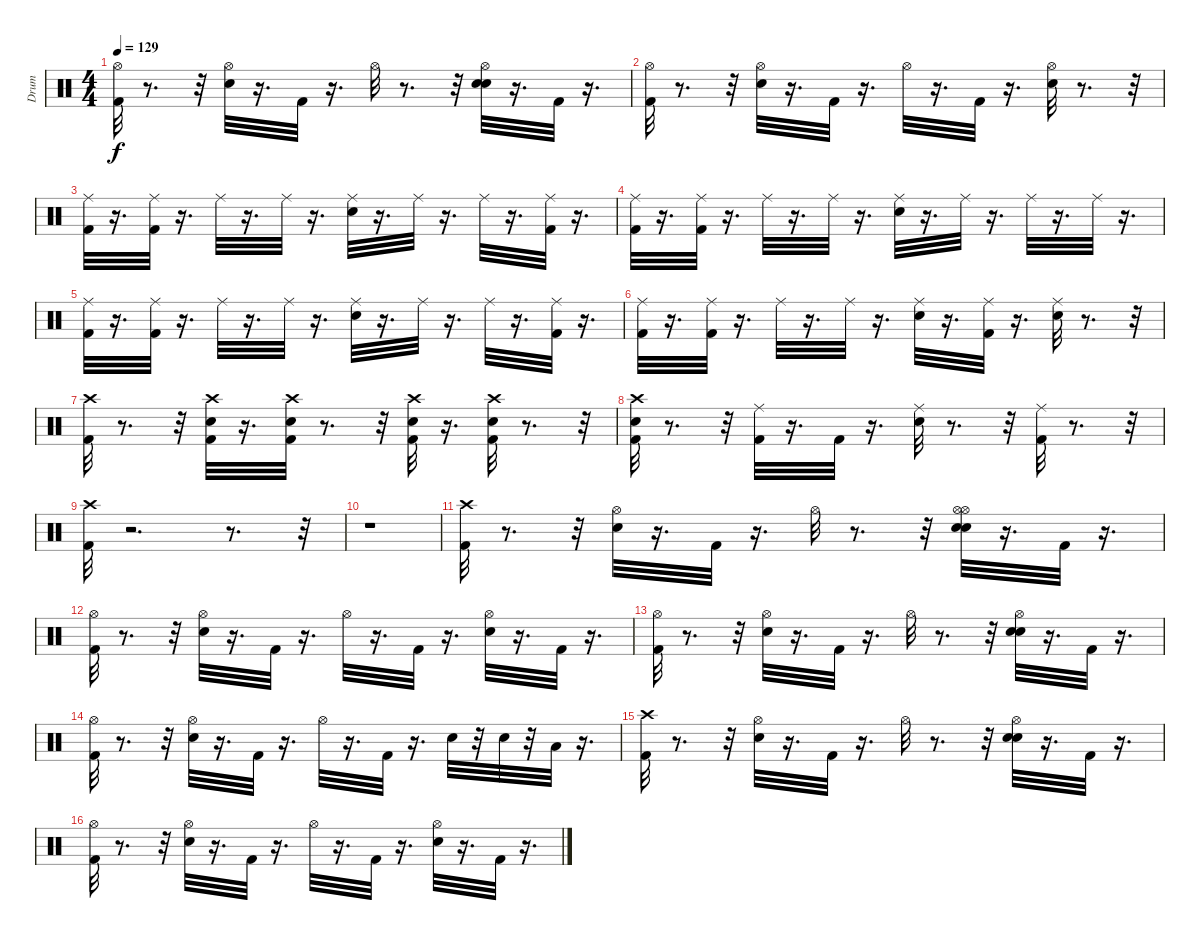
\track ("Drum" "Drum") {instrument percussion}
\staff {score}
\articulation defaults
\ts (4 4)
\tempo 129
\clef neutral
\ks c
("Hi-Hat (open)" "Kick (hit) 2").32{dy f} r.8{d} r.32 ("Snare (hit) 2" "Hi-Hat (open)").32 r.16{d} "Kick (hit) 2".32 r.16{d} "Hi-Hat (open)".32 r.8{d} r.32 ("Snare (hit) 2" "Snare (hit) 2" "Hi-Hat (open)").32 r.16{d} "Kick (hit) 2".32 r.16{d} |
("Hi-Hat (open)" "Kick (hit) 2").32 r.8{d} r.32 ("Snare (hit) 2" "Hi-Hat (open)").32 r.16{d} "Kick (hit) 2".32 r.16{d} "Hi-Hat (open)".32 r.16{d} "Kick (hit) 2".32 r.16{d} ("Snare (hit) 2" "Hi-Hat (open)").32 r.8{d} r.32 |
("Ride (middle)" "Kick (hit) 2").32 r.16{d} ("Kick (hit) 2" "Ride (middle)").32 r.16{d} "Ride (middle)".32 r.16{d} "Ride (middle)".32 r.16{d} ("Ride (middle)" "Snare (hit) 2").32 r.16{d} "Ride (middle)".32 r.16{d} "Ride (middle)".32 r.16{d} ("Ride (middle)" "Kick (hit) 2").32 r.16{d} |
("Kick (hit) 2" "Ride (middle)").32 r.16{d} ("Kick (hit) 2" "Ride (middle)").32 r.16{d} "Ride (middle)".32 r.16{d} "Ride (middle)".32 r.16{d} ("Ride (middle)" "Snare (hit) 2").32 r.16{d} "Ride (middle)".32 r.16{d} "Ride (middle)".32 r.16{d} "Ride (middle)".32 r.16{d} |
("Ride (middle)" "Kick (hit) 2").32 r.16{d} ("Kick (hit) 2" "Ride (middle)").32 r.16{d} "Ride (middle)".32 r.16{d} "Ride (middle)".32 r.16{d} ("Ride (middle)" "Snare (hit) 2").32 r.16{d} "Ride (middle)".32 r.16{d} "Ride (middle)".32 r.16{d} ("Kick (hit) 2" "Ride (middle)").32 r.16{d} |
("Ride (middle)" "Kick (hit) 2").32 r.16{d} ("Kick (hit) 2" "Ride (middle)").32 r.16{d} "Ride (middle)".32 r.16{d} "Ride (middle)".32 r.16{d} ("Ride (middle)" "Snare (hit) 2").32 r.16{d} ("Ride (middle)" "Kick (hit) 2").32 r.16{d} ("Ride (middle)" "Snare (hit) 2").32 r.8{d} r.32 |
("Kick (hit) 2" "Crash high (hit)").32 r.8{d} r.32 ("Kick (hit) 2" "Crash high (hit)" "Snare (hit) 2").32 r.16{d} ("Snare (hit) 2" "Kick (hit) 2" "Crash high (hit)").32 r.8{d} r.32 ("Crash high (hit)" "Kick (hit) 2" "Snare (hit) 2").32 r.16{d} ("Snare (hit) 2" "Crash high (hit)" "Kick (hit) 2").32 r.8{d} r.32 |
("Kick (hit) 2" "Snare (hit) 2" "Crash high (hit)").32 r.8{d} r.32 ("Kick (hit) 2" "Ride (middle)").32 r.16{d} "Kick (hit) 2".32 r.16{d} ("Snare (hit) 2" "Ride (middle)").32 r.8{d} r.32 ("Ride (middle)" "Kick (hit) 2").32 r.8{d} r.32 |
("Kick (hit) 2" "Crash high (hit)").32 r.2{d} r.8{d} r.32 |
r.1 |
("Kick (hit) 2" "Crash high (hit)").32 r.8{d} r.32 ("Snare (hit) 2" "Hi-Hat (open)").32 r.16{d} "Kick (hit) 2".32 r.16{d} "Hi-Hat (open)".32 r.8{d} r.32 ("Snare (hit) 2" "Hi-Hat (open)" "Snare (hit) 2" "Hi-Hat (open)").32 r.16{d} "Kick (hit) 2".32 r.16{d} |
("Kick (hit) 2" "Hi-Hat (open)").32 r.8{d} r.32 ("Snare (hit) 2" "Hi-Hat (open)").32 r.16{d} "Kick (hit) 2".32 r.16{d} "Hi-Hat (open)".32 r.16{d} "Kick (hit) 2".32 r.16{d} ("Snare (hit) 2" "Hi-Hat (open)").32 r.16{d} "Kick (hit) 2".32 r.16{d} |
("Hi-Hat (open)" "Kick (hit) 2").32 r.8{d} r.32 ("Snare (hit) 2" "Hi-Hat (open)").32 r.16{d} "Kick (hit) 2".32 r.16{d} "Hi-Hat (open)".32 r.8{d} r.32 ("Snare (hit) 2" "Hi-Hat (open)" "Snare (hit) 2").32 r.16{d} "Kick (hit) 2".32 r.16{d} |
("Kick (hit) 2" "Hi-Hat (open)").32 r.8{d} r.32 ("Snare (hit) 2" "Hi-Hat (open)").32 r.16{d} "Kick (hit) 2".32 r.16{d} "Hi-Hat (open)".32 r.16{d} "Kick (hit) 2".32 r.16{d} "Snare (hit) 2".32 r.32 "Snare (hit) 2".32 r.32 "Low Floor Tom (hit)".32 r.16{d} |
("Kick (hit) 2" "Crash high (hit)").32 r.8{d} r.32 ("Snare (hit) 2" "Hi-Hat (open)").32 r.16{d} "Kick (hit) 2".32 r.16{d} "Hi-Hat (open)".32 r.8{d} r.32 ("Snare (hit) 2" "Hi-Hat (open)" "Snare (hit) 2").32 r.16{d} "Kick (hit) 2".32 r.16{d} |
("Kick (hit) 2" "Hi-Hat (open)").32 r.8{d} r.32 ("Snare (hit) 2" "Hi-Hat (open)").32 r.16{d} "Kick (hit) 2".32 r.16{d} "Hi-Hat (open)".32 r.16{d} "Kick (hit) 2".32 r.16{d} ("Hi-Hat (open)" "Snare (hit) 2").32 r.16{d} "Kick (hit) 2".32 r.16{d}
